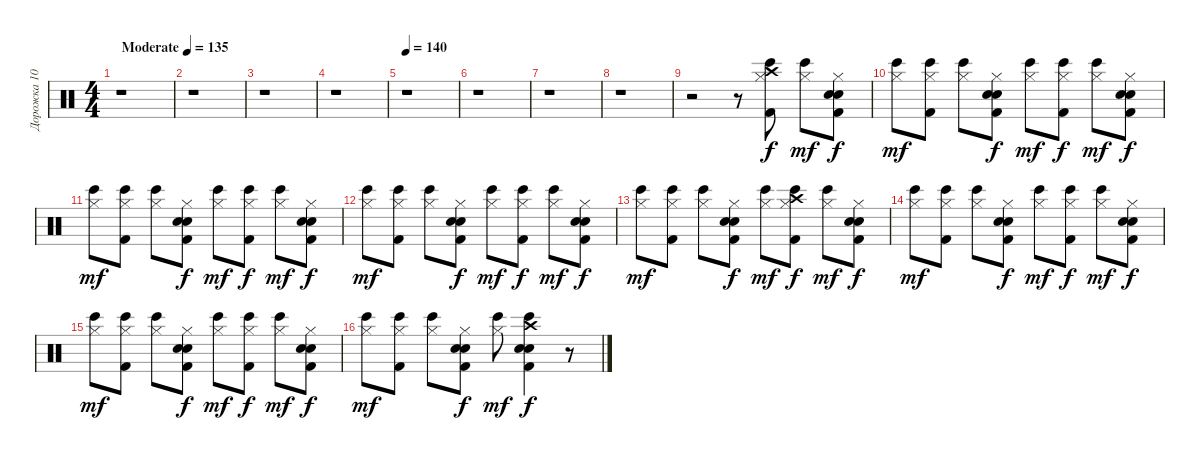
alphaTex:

\track ("Дорожка 10" "Дорожка 10") {instrument percussion}
\staff {score}
\articulation defaults
\ts (4 4)
\tempo (135 "Moderate")
\clef neutral
\ks c
r.1{dy f} |
r.1 |
r.1 |
r.1 |
\tempo 140
r.1 |
r.1 |
r.1 |
r.1 |
r.2 r.8 ("Bongo High (hit)" "Hi-Hat (closed)" "Crash high (hit)" "Kick (hit) 2").8 ("Bongo High (hit)" "Hi-Hat (closed)").8{dy mf} ("Hi-Hat (closed)" "Snare (hit) 2" "Hand Clap (hit)" "Kick (hit) 2").8{dy f} |
("Hi-Hat (closed)" "Bongo High (hit)").8{dy mf} ("Hi-Hat (closed)" "Kick (hit) 2" "Bongo High (hit)").8 ("Hi-Hat (closed)" "Bongo High (hit)").8 ("Hi-Hat (closed)" "Hand Clap (hit)" "Kick (hit) 2" "Snare (hit) 2").8{dy f} ("Bongo High (hit)" "Hi-Hat (closed)").8{dy mf} ("Kick (hit) 2" "Bongo High (hit)" "Hi-Hat (closed)").8{dy f} ("Bongo High (hit)" "Hi-Hat (closed)").8{dy mf} ("Snare (hit) 2" "Kick (hit) 2" "Hand Clap (hit)" "Hi-Hat (closed)").8{dy f} |
("Hi-Hat (closed)" "Bongo High (hit)").8{dy mf} ("Kick (hit) 2" "Hi-Hat (closed)" "Bongo High (hit)").8 ("Hi-Hat (closed)" "Bongo High (hit)").8 ("Kick (hit) 2" "Snare (hit) 2" "Hand Clap (hit)" "Hi-Hat (closed)").8{dy f} ("Bongo High (hit)" "Hi-Hat (closed)").8{dy mf} ("Bongo High (hit)" "Kick (hit) 2" "Hi-Hat (closed)").8{dy f} ("Bongo High (hit)" "Hi-Hat (closed)").8{dy mf} ("Hand Clap (hit)" "Snare (hit) 2" "Kick (hit) 2" "Hi-Hat (closed)").8{dy f} |
("Hi-Hat (closed)" "Bongo High (hit)").8{dy mf} ("Kick (hit) 2" "Hi-Hat (closed)" "Bongo High (hit)").8 ("Hi-Hat (closed)" "Bongo High (hit)").8 ("Hand Clap (hit)" "Kick (hit) 2" "Snare (hit) 2" "Hi-Hat (closed)").8{dy f} ("Bongo High (hit)" "Hi-Hat (closed)").8{dy mf} ("Bongo High (hit)" "Kick (hit) 2" "Hi-Hat (closed)").8{dy f} ("Bongo High (hit)" "Hi-Hat (closed)").8{dy mf} ("Hand Clap (hit)" "Snare (hit) 2" "Kick (hit) 2" "Hi-Hat (closed)").8{dy f} |
("Hi-Hat (closed)" "Bongo High (hit)").8{dy mf} ("Kick (hit) 2" "Hi-Hat (closed)" "Bongo High (hit)").8 ("Hi-Hat (closed)" "Bongo High (hit)").8 ("Hand Clap (hit)" "Kick (hit) 2" "Snare (hit) 2" "Hi-Hat (closed)").8{dy f} ("Bongo High (hit)" "Hi-Hat (closed)").8{dy mf} ("Crash high (hit)" "Kick (hit) 2" "Bongo High (hit)" "Hi-Hat (closed)").8{dy f} ("Bongo High (hit)" "Hi-Hat (closed)").8{dy mf} ("Snare (hit) 2" "Kick (hit) 2" "Hand Clap (hit)" "Hi-Hat (closed)").8{dy f} |
("Hi-Hat (closed)" "Bongo High (hit)").8{dy mf} ("Kick (hit) 2" "Hi-Hat (closed)" "Bongo High (hit)").8 ("Hi-Hat (closed)" "Bongo High (hit)").8 ("Kick (hit) 2" "Snare (hit) 2" "Hand Clap (hit)" "Hi-Hat (closed)").8{dy f} ("Bongo High (hit)" "Hi-Hat (closed)").8{dy mf} ("Kick (hit) 2" "Bongo High (hit)" "Hi-Hat (closed)").8{dy f} ("Bongo High (hit)" "Hi-Hat (closed)").8{dy mf} ("Snare (hit) 2" "Kick (hit) 2" "Hand Clap (hit)" "Hi-Hat (closed)").8{dy f} |
("Hi-Hat (closed)" "Bongo High (hit)").8{dy mf} ("Kick (hit) 2" "Hi-Hat (closed)" "Bongo High (hit)").8 ("Hi-Hat (closed)" "Bongo High (hit)").8 ("Kick (hit) 2" "Snare (hit) 2" "Hand Clap (hit)" "Hi-Hat (closed)").8{dy f} ("Bongo High (hit)" "Hi-Hat (closed)").8{dy mf} ("Kick (hit) 2" "Bongo High (hit)" "Hi-Hat (closed)").8{dy f} ("Bongo High (hit)" "Hi-Hat (closed)").8{dy mf} ("Snare (hit) 2" "Kick (hit) 2" "Hand Clap (hit)" "Hi-Hat (closed)").8{dy f} |
("Hi-Hat (closed)" "Bongo High (hit)").8{dy mf} ("Kick (hit) 2" "Hi-Hat (closed)" "Bongo High (hit)").8 ("Hi-Hat (closed)" "Bongo High (hit)").8 ("Kick (hit) 2" "Snare (hit) 2" "Hand Clap (hit)" "Hi-Hat (closed)").8{dy f} ("Bongo High (hit)" "Hi-Hat (closed)").8{dy mf} ("Electric Snare (hit)" "Snare (hit) 2" "Crash high (hit)" "Bongo High (hit)" "Kick (hit) 2").4{dy f} r.8
